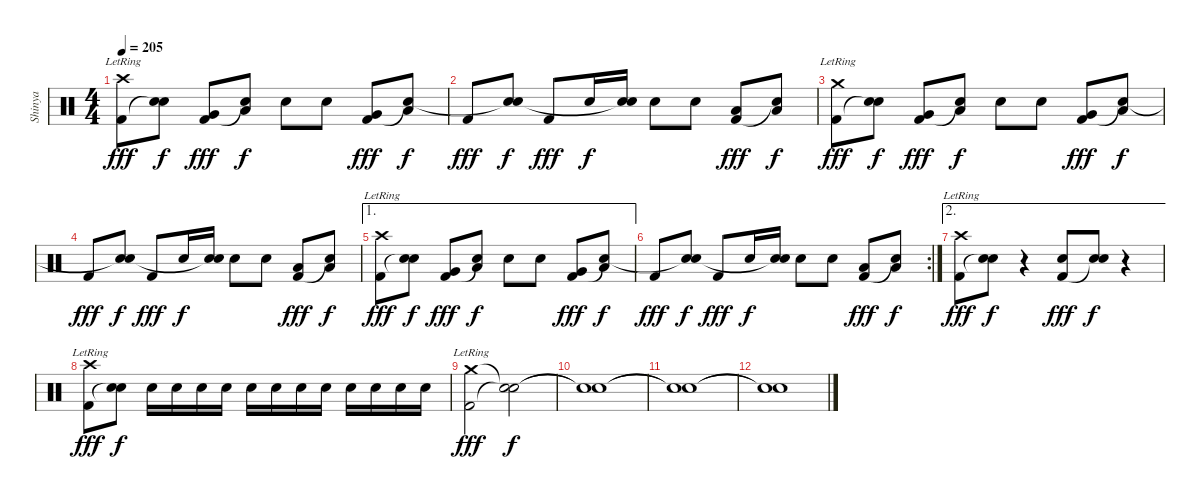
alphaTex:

\track ("Shinya" "Shinya") {instrument percussion}
\staff {score}
\articulation defaults
\ts (4 4)
\tempo 205
\clef neutral
\ks c
("Crash high (hit)"{lr} "Kick (hit) 2").8{dy fff} ("Electric Snare (hit)" "Snare (hit)"{t}).8{dy f} ("Very Low Tom (hit)" "Kick (hit) 2").8{dy fff} ("Low Floor Tom (hit)" "Snare (hit)"{t}).8{dy f} "Electric Snare (hit)".8 "Electric Snare (hit)".8 ("Very Low Tom (hit)" "Kick (hit) 2").8{dy fff} ("Low Floor Tom (hit)" "Snare (hit)"{t}).8{dy f} |
"Kick (hit) 2".8{dy fff} ("Electric Snare (hit)" "Snare (hit)"{t}).8{dy f} "Kick (hit) 2".8{dy fff} "Electric Snare (hit)".16{dy f} ("Electric Snare (hit)" "Snare (hit)"{t}).16 "Electric Snare (hit)".8 "Electric Snare (hit)".8 ("Low Floor Tom (hit)" "Kick (hit) 2").8{dy fff} ("Low Floor Tom (hit)" "Snare (hit)"{t}).8{dy f} |
("Crash medium (hit)"{lr} "Kick (hit) 2").8{dy fff} ("Electric Snare (hit)" "Snare (hit)"{t}).8{dy f} ("Very Low Tom (hit)" "Kick (hit) 2").8{dy fff} ("Low Floor Tom (hit)" "Snare (hit)"{t}).8{dy f} "Electric Snare (hit)".8 "Electric Snare (hit)".8 ("Very Low Tom (hit)" "Kick (hit) 2").8{dy fff} ("Low Floor Tom (hit)" "Snare (hit)"{t}).8{dy f} |
"Kick (hit) 2".8{dy fff} ("Electric Snare (hit)" "Snare (hit)"{t}).8{dy f} "Kick (hit) 2".8{dy fff} "Electric Snare (hit)".16{dy f} ("Electric Snare (hit)" "Snare (hit)"{t}).16 "Electric Snare (hit)".8 "Electric Snare (hit)".8 ("Low Floor Tom (hit)" "Kick (hit) 2").8{dy fff} ("Low Floor Tom (hit)" "Snare (hit)"{t}).8{dy f} |
\ae 1
("Crash high (hit)"{lr} "Kick (hit) 2").8{dy fff} ("Electric Snare (hit)" "Snare (hit)"{t}).8{dy f} ("Very Low Tom (hit)" "Kick (hit) 2").8{dy fff} ("Low Floor Tom (hit)" "Snare (hit)"{t}).8{dy f} "Electric Snare (hit)".8 "Electric Snare (hit)".8 ("Very Low Tom (hit)" "Kick (hit) 2").8{dy fff} ("Low Floor Tom (hit)" "Snare (hit)"{t}).8{dy f} |
\rc 2 "Kick (hit) 2".8{dy fff}
("Electric Snare (hit)" "Snare (hit)"{t}).8{dy f} "Kick (hit) 2".8{dy fff} "Electric Snare (hit)".16{dy f} ("Electric Snare (hit)" "Snare (hit)"{t}).16 "Electric Snare (hit)".8 "Electric Snare (hit)".8 ("Low Floor Tom (hit)" "Kick (hit) 2").8{dy fff} ("Low Floor Tom (hit)" "Snare (hit)"{t}).8{dy f} |
\ae 2
("Crash high (hit)"{lr} "Kick (hit) 2").8{dy fff} ("Electric Snare (hit)" "Snare (hit)"{t}).8{dy f} r.4 ("Electric Snare (hit)" "Kick (hit) 2").8{dy fff} ("Electric Snare (hit)" "Snare (hit)"{t}).8{dy f} r.4 |
("Crash high (hit)"{lr} "Kick (hit) 2").8{dy fff} ("Electric Snare (hit)" "Snare (hit)"{t}).8{dy f} "Electric Snare (hit)".16 "Electric Snare (hit)".16 "Electric Snare (hit)".16 "Electric Snare (hit)".16 "Electric Snare (hit)".16 "Electric Snare (hit)".16 "Electric Snare (hit)".16 "Electric Snare (hit)".16 "Electric Snare (hit)".16 "Electric Snare (hit)".16 "Electric Snare (hit)".16 "Electric Snare (hit)".16 |
("Crash medium (hit)"{lr} "Kick (hit) 2").2{dy fff volume 15} ("Snare (hit)"{t} "Snare (hit)"{t}).2{dy f} |
("Snare (hit)"{t} "Snare (hit)"{t}).1 |
("Snare (hit)"{t} "Snare (hit)"{t}).1 |
("Snare (hit)"{t} "Snare (hit)"{t}).1
